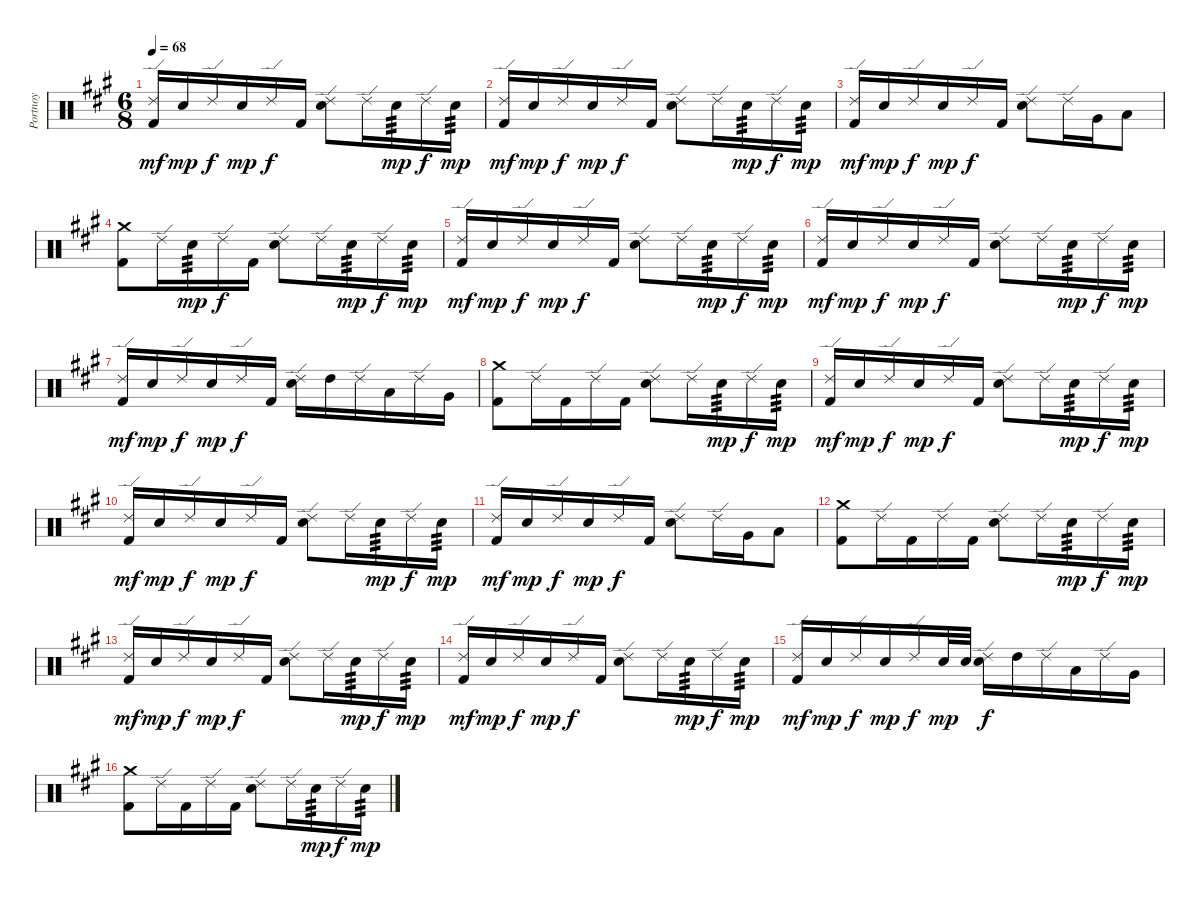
\track ("Portnoy" "Portnoy") {instrument percussion}
\staff {score}
\articulation defaults
\ts (6 8)
\tempo 68
\clef neutral
\ks a
("Ride (edge) 2" "Kick (hit) 2").16{dy mf} "Snare (hit) 2".16{dy mp} "Ride (edge) 2".16{dy f} "Snare (hit) 2".16{dy mp} "Ride (edge) 2".16{dy f} "Kick (hit) 2".16 ("Ride (edge) 2" "Snare (hit) 2").8 "Ride (edge) 2".16 "Snare (hit) 2".16{tp 3 dy mp} "Ride (edge) 2".16{dy f} "Snare (hit) 2".16{tp 3 dy mp} |
("Ride (edge) 2" "Kick (hit) 2").16{dy mf} "Snare (hit) 2".16{dy mp} "Ride (edge) 2".16{dy f} "Snare (hit) 2".16{dy mp} "Ride (edge) 2".16{dy f} "Kick (hit) 2".16 ("Ride (edge) 2" "Snare (hit) 2").8 "Ride (edge) 2".16 "Snare (hit) 2".16{tp 3 dy mp} "Ride (edge) 2".16{dy f} "Snare (hit) 2".16{tp 3 dy mp} |
("Ride (edge) 2" "Kick (hit) 2").16{dy mf} "Snare (hit) 2".16{dy mp} "Ride (edge) 2".16{dy f} "Snare (hit) 2".16{dy mp} "Ride (edge) 2".16{dy f} "Kick (hit) 2".16 ("Ride (edge) 2" "Snare (hit) 2").8 "Ride (edge) 2".16 "Very Low Tom (hit)".16 "Low Floor Tom (hit)".8 |
("Crash medium (hit)" "Kick (hit) 2").8 "Ride (edge) 2".16 "Snare (hit) 2".16{tp 3 dy mp} "Ride (edge) 2".16{dy f} "Kick (hit) 2".16 ("Ride (edge) 2" "Snare (hit) 2").8 "Ride (edge) 2".16 "Snare (hit) 2".16{tp 3 dy mp} "Ride (edge) 2".16{dy f} "Snare (hit) 2".16{tp 3 dy mp} |
("Ride (edge) 2" "Kick (hit) 2").16{dy mf} "Snare (hit) 2".16{dy mp} "Ride (edge) 2".16{dy f} "Snare (hit) 2".16{dy mp} "Ride (edge) 2".16{dy f} "Kick (hit) 2".16 ("Ride (edge) 2" "Snare (hit) 2").8 "Ride (edge) 2".16 "Snare (hit) 2".16{tp 3 dy mp} "Ride (edge) 2".16{dy f} "Snare (hit) 2".16{tp 3 dy mp} |
("Ride (edge) 2" "Kick (hit) 2").16{dy mf} "Snare (hit) 2".16{dy mp} "Ride (edge) 2".16{dy f} "Snare (hit) 2".16{dy mp} "Ride (edge) 2".16{dy f} "Kick (hit) 2".16 ("Ride (edge) 2" "Snare (hit) 2").8 "Ride (edge) 2".16 "Snare (hit) 2".16{tp 3 dy mp} "Ride (edge) 2".16{dy f} "Snare (hit) 2".16{tp 3 dy mp} |
("Ride (edge) 2" "Kick (hit) 2").16{dy mf} "Snare (hit) 2".16{dy mp} "Ride (edge) 2".16{dy f} "Snare (hit) 2".16{dy mp} "Ride (edge) 2".16{dy f} "Kick (hit) 2".16 ("Snare (hit) 2" "Ride (edge) 2").16 "High Tom (hit)".16 "Ride (edge) 2".16 "Low Tom (hit)".16 "Ride (edge) 2".16 "Very Low Tom (hit)".16 |
("Crash medium (hit)" "Kick (hit) 2").8 "Ride (edge) 2".16 "Kick (hit) 2".16 "Ride (edge) 2".16 "Kick (hit) 2".16 ("Ride (edge) 2" "Snare (hit) 2").8 "Ride (edge) 2".16 "Snare (hit) 2".16{tp 3 dy mp} "Ride (edge) 2".16{dy f} "Snare (hit) 2".16{tp 3 dy mp} |
("Ride (edge) 2" "Kick (hit) 2").16{dy mf} "Snare (hit) 2".16{dy mp} "Ride (edge) 2".16{dy f} "Snare (hit) 2".16{dy mp} "Ride (edge) 2".16{dy f} "Kick (hit) 2".16 ("Ride (edge) 2" "Snare (hit) 2").8 "Ride (edge) 2".16 "Snare (hit) 2".16{tp 3 dy mp} "Ride (edge) 2".16{dy f} "Snare (hit) 2".16{tp 3 dy mp} |
("Ride (edge) 2" "Kick (hit) 2").16{dy mf} "Snare (hit) 2".16{dy mp} "Ride (edge) 2".16{dy f} "Snare (hit) 2".16{dy mp} "Ride (edge) 2".16{dy f} "Kick (hit) 2".16 ("Ride (edge) 2" "Snare (hit) 2").8 "Ride (edge) 2".16 "Snare (hit) 2".16{tp 3 dy mp} "Ride (edge) 2".16{dy f} "Snare (hit) 2".16{tp 3 dy mp} |
("Ride (edge) 2" "Kick (hit) 2").16{dy mf} "Snare (hit) 2".16{dy mp} "Ride (edge) 2".16{dy f} "Snare (hit) 2".16{dy mp} "Ride (edge) 2".16{dy f} "Kick (hit) 2".16 ("Ride (edge) 2" "Snare (hit) 2").8 "Ride (edge) 2".16 "Very Low Tom (hit)".16 "Low Floor Tom (hit)".8 |
("Crash medium (hit)" "Kick (hit) 2").8 "Ride (edge) 2".16 "Kick (hit) 2".16 "Ride (edge) 2".16 "Kick (hit) 2".16 ("Ride (edge) 2" "Snare (hit) 2").8 "Ride (edge) 2".16 "Snare (hit) 2".16{tp 3 dy mp} "Ride (edge) 2".16{dy f} "Snare (hit) 2".16{tp 3 dy mp} |
("Ride (edge) 2" "Kick (hit) 2").16{dy mf} "Snare (hit) 2".16{dy mp} "Ride (edge) 2".16{dy f} "Snare (hit) 2".16{dy mp} "Ride (edge) 2".16{dy f} "Kick (hit) 2".16 ("Ride (edge) 2" "Snare (hit) 2").8 "Ride (edge) 2".16 "Snare (hit) 2".16{tp 3 dy mp} "Ride (edge) 2".16{dy f} "Snare (hit) 2".16{tp 3 dy mp} |
("Ride (edge) 2" "Kick (hit) 2").16{dy mf} "Snare (hit) 2".16{dy mp} "Ride (edge) 2".16{dy f} "Snare (hit) 2".16{dy mp} "Ride (edge) 2".16{dy f} "Kick (hit) 2".16 ("Ride (edge) 2" "Snare (hit) 2").8 "Ride (edge) 2".16 "Snare (hit) 2".16{tp 3 dy mp} "Ride (edge) 2".16{dy f} "Snare (hit) 2".16{tp 3 dy mp} |
("Ride (edge) 2" "Kick (hit) 2").16{dy mf} "Snare (hit) 2".16{dy mp} "Ride (edge) 2".16{dy f} "Snare (hit) 2".16{dy mp} "Ride (edge) 2".16{dy f} "Snare (hit) 2".32{dy mp} "Snare (hit) 2".32 ("Snare (hit) 2" "Ride (edge) 2").16{dy f} "High Tom (hit)".16 "Ride (edge) 2".16 "Low Tom (hit)".16 "Ride (edge) 2".16 "Very Low Tom (hit)".16 |
("Crash medium (hit)" "Kick (hit) 2").8 "Ride (edge) 2".16 "Kick (hit) 2".16 "Ride (edge) 2".16 "Kick (hit) 2".16 ("Ride (edge) 2" "Snare (hit) 2").8 "Ride (edge) 2".16 "Snare (hit) 2".16{tp 3 dy mp} "Ride (edge) 2".16{dy f} "Snare (hit) 2".16{tp 3 dy mp}
